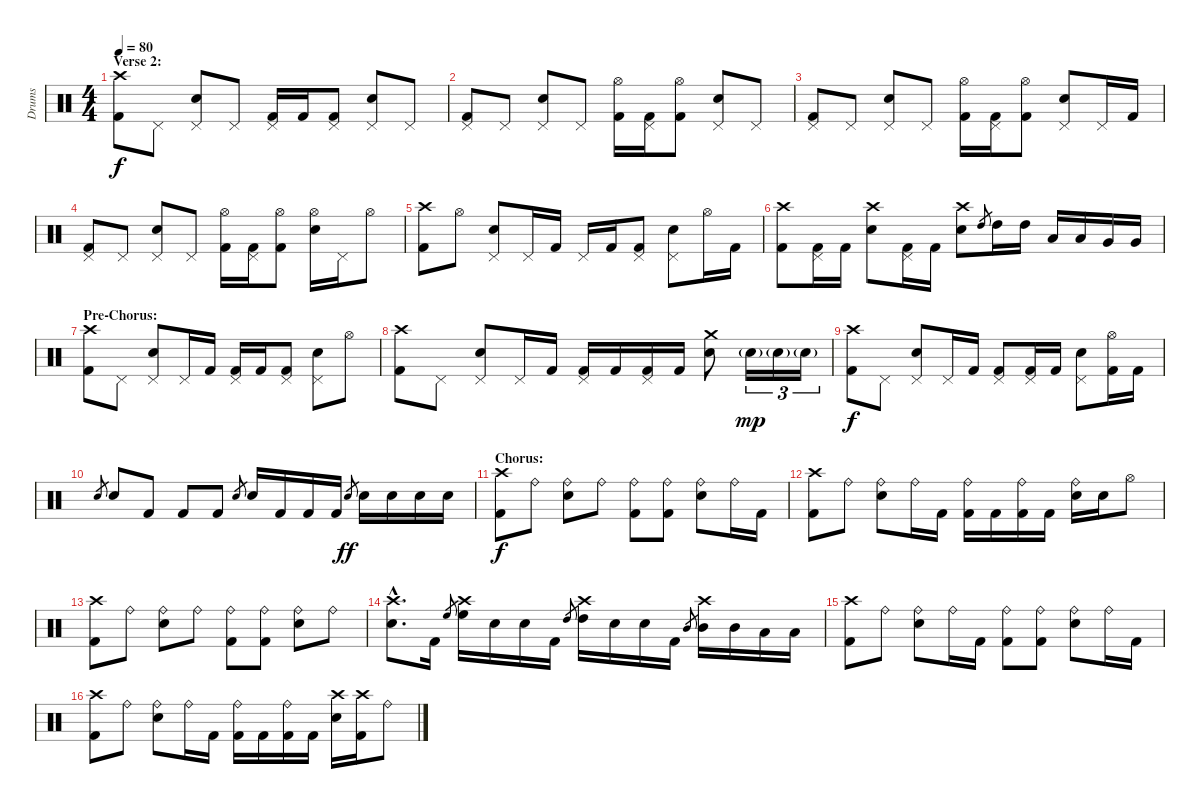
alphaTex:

\track ("Drums" "Drums") {instrument percussion}
\staff {score}
\articulation defaults
\ts (4 4)
\section ("" "Verse 2:")
\tempo 80
\clef neutral
\ks c
("Crash high (hit)" "Kick (hit) 2").8{dy f} "Pedal Hi-Hat (hit)".8 ("Pedal Hi-Hat (hit)" "Electric Snare (hit)").8 "Pedal Hi-Hat (hit)".8 ("Pedal Hi-Hat (hit)" "Kick (hit) 2").16 "Kick (hit) 2".16 ("Pedal Hi-Hat (hit)" "Kick (hit) 2").8 ("Pedal Hi-Hat (hit)" "Electric Snare (hit)").8 "Pedal Hi-Hat (hit)".8 |
("Pedal Hi-Hat (hit)" "Kick (hit) 2").8 "Pedal Hi-Hat (hit)".8 ("Pedal Hi-Hat (hit)" "Electric Snare (hit)").8 "Pedal Hi-Hat (hit)".8 ("Hi-Hat (open)" "Kick (hit) 2").16 ("Pedal Hi-Hat (hit)" "Kick (hit) 2").16 ("Hi-Hat (open)" "Kick (hit) 2").8 ("Pedal Hi-Hat (hit)" "Electric Snare (hit)").8 "Pedal Hi-Hat (hit)".8 |
("Pedal Hi-Hat (hit)" "Kick (hit) 2").8 "Pedal Hi-Hat (hit)".8 ("Pedal Hi-Hat (hit)" "Electric Snare (hit)").8 "Pedal Hi-Hat (hit)".8 ("Hi-Hat (open)" "Kick (hit) 2").16 ("Pedal Hi-Hat (hit)" "Kick (hit) 2").16 ("Hi-Hat (open)" "Kick (hit) 2").8 ("Pedal Hi-Hat (hit)" "Electric Snare (hit)").8 "Pedal Hi-Hat (hit)".16 "Kick (hit) 2".16 |
("Pedal Hi-Hat (hit)" "Kick (hit) 2").8 "Pedal Hi-Hat (hit)".8 ("Pedal Hi-Hat (hit)" "Electric Snare (hit)").8 "Pedal Hi-Hat (hit)".8 ("Hi-Hat (open)" "Kick (hit) 2").16 ("Pedal Hi-Hat (hit)" "Kick (hit) 2").16 ("Hi-Hat (open)" "Kick (hit) 2").8 ("Hi-Hat (open)" "Electric Snare (hit)").16 "Pedal Hi-Hat (hit)".16 "Hi-Hat (open)".8 |
("Crash high (hit)" "Kick (hit) 2").8 "Hi-Hat (open)".8 ("Pedal Hi-Hat (hit)" "Electric Snare (hit)").8 "Pedal Hi-Hat (hit)".16 "Kick (hit) 2".16 "Pedal Hi-Hat (hit)".16 "Kick (hit) 2".16 ("Pedal Hi-Hat (hit)" "Kick (hit) 2").8 ("Pedal Hi-Hat (hit)" "Electric Snare (hit)").8 "Hi-Hat (open)".16 "Kick (hit) 2".16 |
("Crash high (hit)" "Kick (hit) 2").8 ("Pedal Hi-Hat (hit)" "Kick (hit) 2").16 "Kick (hit) 2".16 ("Crash high (hit)" "Electric Snare (hit)").8 ("Pedal Hi-Hat (hit)" "Kick (hit) 2").16 "Kick (hit) 2".16 ("Crash high (hit)" "Electric Snare (hit)").8 "High Tom (hit)".8{gr} "High Tom (hit)".16 "High Tom (hit)".16 "Low Tom (hit)".16 "Low Tom (hit)".16 "Very Low Tom (hit)".16 "Very Low Tom (hit)".16 |
\section ("" "Pre-Chorus:")
("Crash high (hit)" "Kick (hit) 2").8 "Pedal Hi-Hat (hit)".8 ("Pedal Hi-Hat (hit)" "Electric Snare (hit)").8 "Pedal Hi-Hat (hit)".16 "Kick (hit) 2".16 ("Pedal Hi-Hat (hit)" "Kick (hit) 2").16 "Kick (hit) 2".16 ("Pedal Hi-Hat (hit)" "Kick (hit) 2").8 ("Pedal Hi-Hat (hit)" "Electric Snare (hit)").8 "Hi-Hat (open)".8 |
("Crash high (hit)" "Kick (hit) 2").8 "Pedal Hi-Hat (hit)".8 ("Pedal Hi-Hat (hit)" "Electric Snare (hit)").8 "Pedal Hi-Hat (hit)".16 "Kick (hit) 2".16 ("Pedal Hi-Hat (hit)" "Kick (hit) 2").16 "Kick (hit) 2".16 ("Pedal Hi-Hat (hit)" "Kick (hit) 2").16 "Kick (hit) 2".16 ("Crash medium (hit)" "Electric Snare (hit)").8 "Electric Snare (hit)"{g}.16{tu (3 2) dy mp} "Electric Snare (hit)"{g}.16{tu (3 2)} "Electric Snare (hit)"{g}.16{tu (3 2)} |
("Crash high (hit)" "Kick (hit) 2").8{dy f} "Pedal Hi-Hat (hit)".8 ("Pedal Hi-Hat (hit)" "Electric Snare (hit)").8 "Pedal Hi-Hat (hit)".16 "Kick (hit) 2".16 ("Pedal Hi-Hat (hit)" "Kick (hit) 2").8 ("Pedal Hi-Hat (hit)" "Kick (hit) 2").16 "Kick (hit) 2".16 ("Pedal Hi-Hat (hit)" "Electric Snare (hit)").8 ("Hi-Hat (open)" "Kick (hit) 2").16 "Kick (hit) 2".16 |
"Electric Snare (hit)".8{gr} "Electric Snare (hit)".8 "Kick (hit) 2".8 "Kick (hit) 2".8 "Kick (hit) 2".8 "Electric Snare (hit)".8{gr} "Electric Snare (hit)".16 "Kick (hit) 2".16 "Kick (hit) 2".16 "Kick (hit) 2".16 "Electric Snare (hit)".8{gr dy ff} "Electric Snare (hit)".16 "Electric Snare (hit)".16 "Electric Snare (hit)".16 "Electric Snare (hit)".16 |
\section ("" "Chorus:")
("Crash high (hit)" "Kick (hit) 2").8{dy f} "Ride (bell)".8 ("Ride (bell)" "Electric Snare (hit)").8 "Ride (bell)".8 ("Ride (bell)" "Kick (hit) 2").8 ("Ride (bell)" "Kick (hit) 2").8 ("Ride (bell)" "Electric Snare (hit)").8 "Ride (bell)".16 "Kick (hit) 2".16 |
("Crash high (hit)" "Kick (hit) 2").8 "Ride (bell)".8 ("Ride (bell)" "Electric Snare (hit)").8 "Ride (bell)".16 "Kick (hit) 2".16 ("Ride (bell)" "Kick (hit) 2").16 "Kick (hit) 2".16 ("Ride (bell)" "Kick (hit) 2").16 "Kick (hit) 2".16 ("Ride (bell)" "Electric Snare (hit)").16 "Electric Snare (hit)".16 "Hi-Hat (open)".8 |
("Crash high (hit)" "Kick (hit) 2").8 "Ride (bell)".8 ("Ride (bell)" "Electric Snare (hit)").8 "Ride (bell)".8 ("Ride (bell)" "Kick (hit) 2").8 ("Ride (bell)" "Kick (hit) 2").8 ("Ride (bell)" "Electric Snare (hit)").8 "Ride (bell)".8 |
("Crash high (hit)"{hac} "Electric Snare (hit)"{hac}).8{d} "Kick (hit) 2".16 "High Floor Tom (hit)".8{gr} ("Crash high (hit)" "High Floor Tom (hit)").16 "Electric Snare (hit)".16 "Electric Snare (hit)".16 "Kick (hit) 2".16 "High Tom (hit)".8{gr} ("Crash high (hit)" "High Tom (hit)").16 "Electric Snare (hit)".16 "Electric Snare (hit)".16 "Kick (hit) 2".16 "Mid Tom (hit)".8{gr} ("Crash high (hit)" "Mid Tom (hit)").16 "Mid Tom (hit)".16 "Low Tom (hit)".16 "Low Tom (hit)".16 |
("Crash high (hit)" "Kick (hit) 2").8 "Ride (bell)".8 ("Ride (bell)" "Electric Snare (hit)").8 "Ride (bell)".16 "Kick (hit) 2".16 ("Ride (bell)" "Kick (hit) 2").8 ("Ride (bell)" "Kick (hit) 2").8 ("Ride (bell)" "Electric Snare (hit)").8 "Ride (bell)".16 "Kick (hit) 2".16 |
("Crash high (hit)" "Kick (hit) 2").8 "Ride (bell)".8 ("Ride (bell)" "Electric Snare (hit)").8 "Ride (bell)".16 "Kick (hit) 2".16 ("Ride (bell)" "Kick (hit) 2").16 "Kick (hit) 2".16 ("Ride (bell)" "Kick (hit) 2").16 "Kick (hit) 2".16 ("Crash high (hit)" "Electric Snare (hit)").16 ("Crash high (hit)" "Kick (hit) 2").16 "Ride (bell)".8
